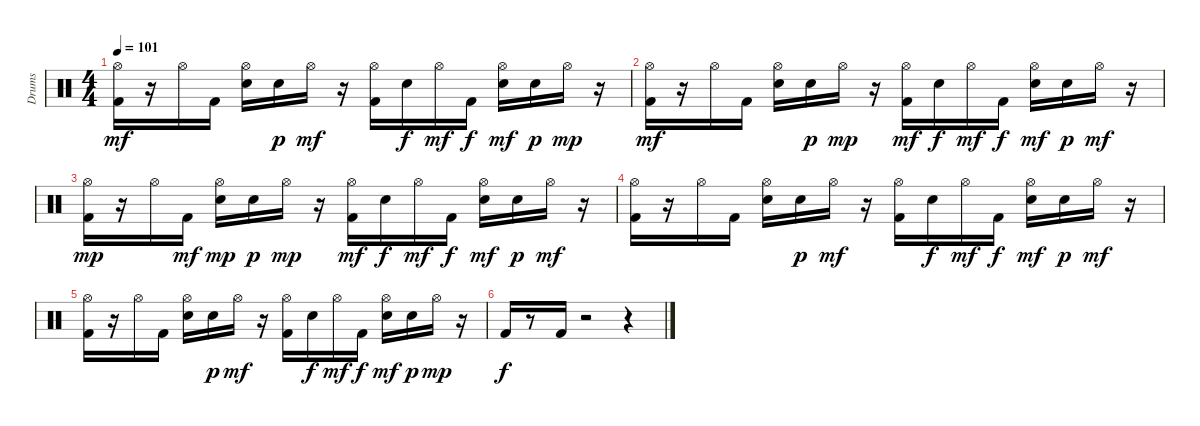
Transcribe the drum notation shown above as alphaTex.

\track ("Drums" "Drums") {instrument percussion}
\staff {score}
\articulation defaults
\ts (4 4)
\tempo 101
\clef neutral
\ks c
("Hi-Hat (open)" "Kick (hit) 2").16{dy mf} r.16 "Hi-Hat (open)".16 "Kick (hit) 2".16 ("Hi-Hat (open)" "Snare (hit) 2").16 "Snare (hit) 2".16{dy p} "Hi-Hat (open)".16{dy mf} r.16 ("Kick (hit) 2" "Hi-Hat (open)").16 "Snare (hit) 2".16{dy f} "Hi-Hat (open)".16{dy mf} "Kick (hit) 2".16{dy f} ("Snare (hit) 2" "Hi-Hat (open)").16{dy mf} "Snare (hit) 2".16{dy p} "Hi-Hat (open)".16{dy mp} r.16 |
("Kick (hit) 2" "Hi-Hat (open)").16{dy mf} r.16 "Hi-Hat (open)".16 "Kick (hit) 2".16 ("Snare (hit) 2" "Hi-Hat (open)").16 "Snare (hit) 2".16{dy p} "Hi-Hat (open)".16{dy mp} r.16 ("Kick (hit) 2" "Hi-Hat (open)").16{dy mf} "Snare (hit) 2".16{dy f} "Hi-Hat (open)".16{dy mf} "Kick (hit) 2".16{dy f} ("Hi-Hat (open)" "Snare (hit) 2").16{dy mf} "Snare (hit) 2".16{dy p} "Hi-Hat (open)".16{dy mf} r.16 |
("Kick (hit) 2" "Hi-Hat (open)").16{dy mp} r.16 "Hi-Hat (open)".16 "Kick (hit) 2".16{dy mf} ("Hi-Hat (open)" "Snare (hit) 2").16{dy mp} "Snare (hit) 2".16{dy p} "Hi-Hat (open)".16{dy mp} r.16 ("Hi-Hat (open)" "Kick (hit) 2").16{dy mf} "Snare (hit) 2".16{dy f} "Hi-Hat (open)".16{dy mf} "Kick (hit) 2".16{dy f} ("Snare (hit) 2" "Hi-Hat (open)").16{dy mf} "Snare (hit) 2".16{dy p} "Hi-Hat (open)".16{dy mf} r.16 |
("Kick (hit) 2" "Hi-Hat (open)").16 r.16 "Hi-Hat (open)".16 "Kick (hit) 2".16 ("Snare (hit) 2" "Hi-Hat (open)").16 "Snare (hit) 2".16{dy p} "Hi-Hat (open)".16{dy mf} r.16 ("Kick (hit) 2" "Hi-Hat (open)").16 "Snare (hit) 2".16{dy f} "Hi-Hat (open)".16{dy mf} "Kick (hit) 2".16{dy f} ("Snare (hit) 2" "Hi-Hat (open)").16{dy mf} "Snare (hit) 2".16{dy p} "Hi-Hat (open)".16{dy mf} r.16 |
("Hi-Hat (open)" "Kick (hit) 2").16 r.16 "Hi-Hat (open)".16 "Kick (hit) 2".16 ("Hi-Hat (open)" "Snare (hit) 2").16 "Snare (hit) 2".16{dy p} "Hi-Hat (open)".16{dy mf} r.16 ("Kick (hit) 2" "Hi-Hat (open)").16 "Snare (hit) 2".16{dy f} "Hi-Hat (open)".16{dy mf} "Kick (hit) 2".16{dy f} ("Snare (hit) 2" "Hi-Hat (open)").16{dy mf} "Snare (hit) 2".16{dy p} "Hi-Hat (open)".16{dy mp} r.16 |
"Kick (hit) 2".16{dy f} r.8 "Kick (hit) 2".16 r.2 r.4
